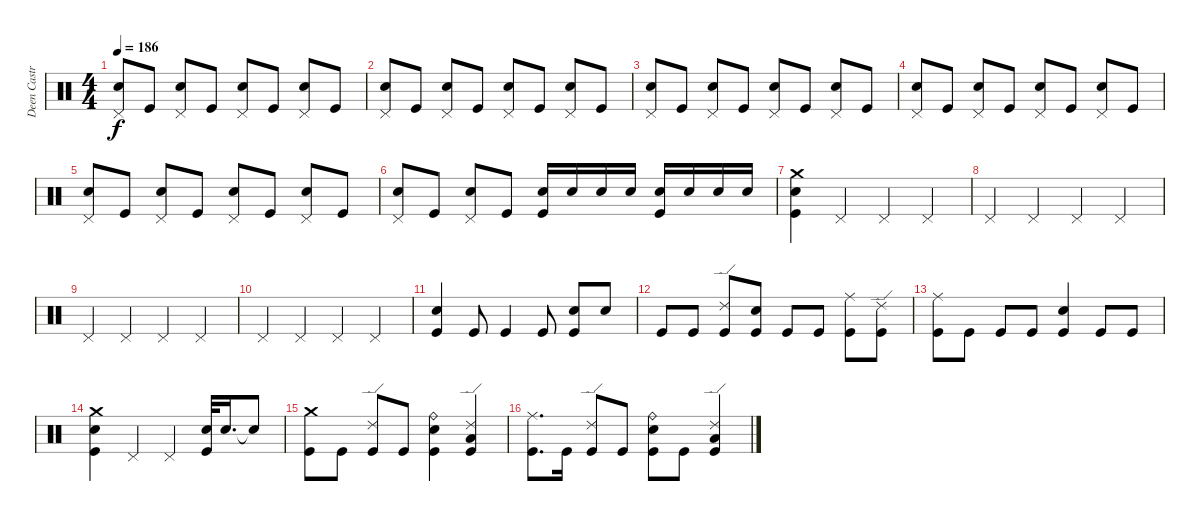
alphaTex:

\track ("Deen Castronovo" "Deen Castr") {instrument percussion}
\staff {score}
\articulation defaults
\ts (4 4)
\tempo 186
\clef neutral
\ks c
("Pedal Hi-Hat (hit)" "Snare (hit) 2").8{dy f} "Kick (hit)".8 ("Pedal Hi-Hat (hit)" "Snare (hit) 2").8 "Kick (hit)".8 ("Pedal Hi-Hat (hit)" "Snare (hit) 2").8 "Kick (hit)".8 ("Pedal Hi-Hat (hit)" "Snare (hit) 2").8 "Kick (hit)".8 |
("Pedal Hi-Hat (hit)" "Snare (hit) 2").8 "Kick (hit)".8 ("Pedal Hi-Hat (hit)" "Snare (hit) 2").8 "Kick (hit)".8 ("Pedal Hi-Hat (hit)" "Snare (hit) 2").8 "Kick (hit)".8 ("Pedal Hi-Hat (hit)" "Snare (hit) 2").8 "Kick (hit)".8 |
("Pedal Hi-Hat (hit)" "Snare (hit) 2").8 "Kick (hit)".8 ("Pedal Hi-Hat (hit)" "Snare (hit) 2").8 "Kick (hit)".8 ("Pedal Hi-Hat (hit)" "Snare (hit) 2").8 "Kick (hit)".8 ("Pedal Hi-Hat (hit)" "Snare (hit) 2").8 "Kick (hit)".8 |
("Pedal Hi-Hat (hit)" "Snare (hit) 2").8 "Kick (hit)".8 ("Pedal Hi-Hat (hit)" "Snare (hit) 2").8 "Kick (hit)".8 ("Pedal Hi-Hat (hit)" "Snare (hit) 2").8 "Kick (hit)".8 ("Pedal Hi-Hat (hit)" "Snare (hit) 2").8 "Kick (hit)".8 |
("Pedal Hi-Hat (hit)" "Snare (hit) 2").8 "Kick (hit)".8 ("Pedal Hi-Hat (hit)" "Snare (hit) 2").8 "Kick (hit)".8 ("Pedal Hi-Hat (hit)" "Snare (hit) 2").8 "Kick (hit)".8 ("Pedal Hi-Hat (hit)" "Snare (hit) 2").8 "Kick (hit)".8 |
("Pedal Hi-Hat (hit)" "Snare (hit) 2").8 "Kick (hit)".8 ("Pedal Hi-Hat (hit)" "Snare (hit) 2").8 "Kick (hit)".8 ("Snare (hit) 2" "Kick (hit)").16 "Snare (hit) 2".16 "Snare (hit) 2".16 "Snare (hit) 2".16 ("Snare (hit) 2" "Kick (hit)").16 "Snare (hit) 2".16 "Snare (hit) 2".16 "Snare (hit) 2".16 |
("Crash medium (hit)" "Snare (hit) 2" "Kick (hit)").4 "Pedal Hi-Hat (hit)".4 "Pedal Hi-Hat (hit)".4 "Pedal Hi-Hat (hit)".4 |
"Pedal Hi-Hat (hit)".4 "Pedal Hi-Hat (hit)".4 "Pedal Hi-Hat (hit)".4 "Pedal Hi-Hat (hit)".4 |
"Pedal Hi-Hat (hit)".4 "Pedal Hi-Hat (hit)".4 "Pedal Hi-Hat (hit)".4 "Pedal Hi-Hat (hit)".4 |
"Pedal Hi-Hat (hit)".4 "Pedal Hi-Hat (hit)".4 "Pedal Hi-Hat (hit)".4 "Pedal Hi-Hat (hit)".4 |
("Snare (hit) 2" "Kick (hit)").4 "Kick (hit)".8 "Kick (hit)".4 "Kick (hit)".8 ("Snare (hit) 2" "Kick (hit)").8 "Snare (hit) 2".8 |
"Kick (hit)".8 "Kick (hit)".8 ("Ride (edge) 2" "Kick (hit)").8 ("Snare (hit) 2" "Kick (hit)").8 "Kick (hit)".8 "Kick (hit)".8 ("Ride (middle)" "Kick (hit)").8 ("Ride (edge) 2" "Kick (hit)").8 |
("Ride (middle)" "Kick (hit)").8 "Kick (hit)".8 "Kick (hit)".8 "Kick (hit)".8 ("Snare (hit) 2" "Kick (hit)").4 "Kick (hit)".8 "Kick (hit)".8 |
("Crash medium (hit)" "Snare (hit) 2" "Kick (hit)").4 "Pedal Hi-Hat (hit)".4 "Pedal Hi-Hat (hit)".4 ("Snare (hit) 2" "Kick (hit)").32 "Snare (hit) 2".16{d} "Snare (hit)"{t}.8 |
("Crash medium (hit)" "Kick (hit)").8 "Kick (hit)".8 ("Ride (edge) 2" "Kick (hit)").8 "Kick (hit)".8 ("Ride (bell)" "Snare (hit) 2" "Kick (hit)").4 ("Ride (edge) 2" "Low Tom (hit)" "Kick (hit)").4 |
("Ride (middle)" "Kick (hit)").8{d} "Kick (hit)".16 ("Ride (edge) 2" "Kick (hit)").8 "Kick (hit)".8 ("Ride (bell)" "Snare (hit) 2" "Kick (hit)").8 "Kick (hit)".8 ("Ride (edge) 2" "Low Tom (hit)" "Kick (hit)").4
